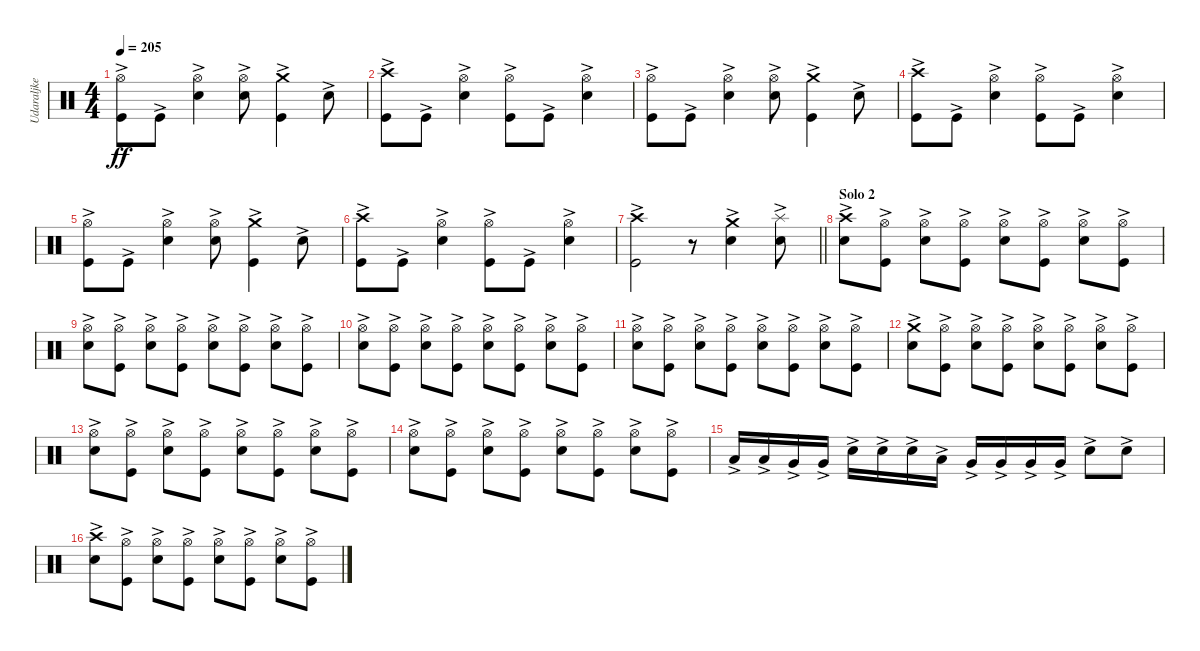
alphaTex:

\track ("Udaraljke" "Udaraljke") {instrument percussion}
\staff {score}
\articulation defaults
\ts (4 4)
\tempo 205
\clef neutral
\ks c
("Kick (hit)"{ac} "Hi-Hat (open)").8{dy ff} "Kick (hit)"{ac}.8 ("Snare (hit) 2"{ac} "Hi-Hat (open)").4 ("Snare (hit) 2"{ac} "Hi-Hat (open)").8 ("Kick (hit)"{ac} "Crash medium (hit)").4 "Snare (hit) 2"{ac}.8 |
("Kick (hit)"{ac} "Crash high (hit)").8 "Kick (hit)"{ac}.8 ("Snare (hit) 2"{ac} "Hi-Hat (open)").4 ("Kick (hit)"{ac} "Hi-Hat (open)").8 "Kick (hit)"{ac}.8 ("Snare (hit) 2"{ac} "Hi-Hat (open)").4 |
("Kick (hit)"{ac} "Hi-Hat (open)").8 "Kick (hit)"{ac}.8 ("Snare (hit) 2"{ac} "Hi-Hat (open)").4 ("Snare (hit) 2"{ac} "Hi-Hat (open)").8 ("Kick (hit)"{ac} "Crash medium (hit)").4 "Snare (hit) 2"{ac}.8 |
("Kick (hit)"{ac} "Crash high (hit)").8 "Kick (hit)"{ac}.8 ("Snare (hit) 2"{ac} "Hi-Hat (open)").4 ("Kick (hit)"{ac} "Hi-Hat (open)").8 "Kick (hit)"{ac}.8 ("Snare (hit) 2"{ac} "Hi-Hat (open)").4 |
("Kick (hit)"{ac} "Hi-Hat (open)").8 "Kick (hit)"{ac}.8 ("Snare (hit) 2"{ac} "Hi-Hat (open)").4 ("Snare (hit) 2"{ac} "Hi-Hat (open)").8 ("Kick (hit)"{ac} "Crash medium (hit)").4 "Snare (hit) 2"{ac}.8 |
("Kick (hit)"{ac} "Crash high (hit)").8 "Kick (hit)"{ac}.8 ("Snare (hit) 2"{ac} "Hi-Hat (open)").4 ("Kick (hit)"{ac} "Hi-Hat (open)").8 "Kick (hit)"{ac}.8 ("Snare (hit) 2"{ac} "Hi-Hat (open)").4 |
\barLineRight lightlight
("Kick (hit)"{ac} "Crash high (hit)").2 r.8 ("Snare (hit) 2"{ac} "Crash medium (hit)").4 ("Snare (hit) 2"{ac} "Splash (hit)").8 |
\section ("" "Solo 2")
("Snare (hit) 2"{ac} "Crash high (hit)").8 ("Kick (hit)"{ac} "Hi-Hat (open)").8 ("Snare (hit) 2"{ac} "Hi-Hat (open)").8 ("Kick (hit)"{ac} "Hi-Hat (open)").8 ("Snare (hit) 2"{ac} "Hi-Hat (open)").8 ("Kick (hit)"{ac} "Hi-Hat (open)").8 ("Snare (hit) 2"{ac} "Hi-Hat (open)").8 ("Kick (hit)"{ac} "Hi-Hat (open)").8 |
("Snare (hit) 2"{ac} "Hi-Hat (open)").8 ("Kick (hit)"{ac} "Hi-Hat (open)").8 ("Snare (hit) 2"{ac} "Hi-Hat (open)").8 ("Kick (hit)"{ac} "Hi-Hat (open)").8 ("Snare (hit) 2"{ac} "Hi-Hat (open)").8 ("Kick (hit)"{ac} "Hi-Hat (open)").8 ("Snare (hit) 2"{ac} "Hi-Hat (open)").8 ("Kick (hit)"{ac} "Hi-Hat (open)").8 |
("Snare (hit) 2"{ac} "Hi-Hat (open)").8 ("Kick (hit)"{ac} "Hi-Hat (open)").8 ("Snare (hit) 2"{ac} "Hi-Hat (open)").8 ("Kick (hit)"{ac} "Hi-Hat (open)").8 ("Snare (hit) 2"{ac} "Hi-Hat (open)").8 ("Kick (hit)"{ac} "Hi-Hat (open)").8 ("Snare (hit) 2"{ac} "Hi-Hat (open)").8 ("Kick (hit)"{ac} "Hi-Hat (open)").8 |
("Snare (hit) 2"{ac} "Hi-Hat (open)").8 ("Kick (hit)"{ac} "Hi-Hat (open)").8 ("Snare (hit) 2"{ac} "Hi-Hat (open)").8 ("Kick (hit)"{ac} "Hi-Hat (open)").8 ("Snare (hit) 2"{ac} "Hi-Hat (open)").8 ("Kick (hit)"{ac} "Hi-Hat (open)").8 ("Snare (hit) 2"{ac} "Hi-Hat (open)").8 ("Kick (hit)"{ac} "Hi-Hat (open)").8 |
("Snare (hit) 2"{ac} "Crash medium (hit)").8 ("Kick (hit)"{ac} "Hi-Hat (open)").8 ("Snare (hit) 2"{ac} "Hi-Hat (open)").8 ("Kick (hit)"{ac} "Hi-Hat (open)").8 ("Snare (hit) 2"{ac} "Hi-Hat (open)").8 ("Kick (hit)"{ac} "Hi-Hat (open)").8 ("Snare (hit) 2"{ac} "Hi-Hat (open)").8 ("Kick (hit)"{ac} "Hi-Hat (open)").8 |
("Snare (hit) 2"{ac} "Hi-Hat (open)").8 ("Kick (hit)"{ac} "Hi-Hat (open)").8 ("Snare (hit) 2"{ac} "Hi-Hat (open)").8 ("Kick (hit)"{ac} "Hi-Hat (open)").8 ("Snare (hit) 2"{ac} "Hi-Hat (open)").8 ("Kick (hit)"{ac} "Hi-Hat (open)").8 ("Snare (hit) 2"{ac} "Hi-Hat (open)").8 ("Kick (hit)"{ac} "Hi-Hat (open)").8 |
("Snare (hit) 2"{ac} "Hi-Hat (open)").8 ("Kick (hit)"{ac} "Hi-Hat (open)").8 ("Snare (hit) 2"{ac} "Hi-Hat (open)").8 ("Kick (hit)"{ac} "Hi-Hat (open)").8 ("Snare (hit) 2"{ac} "Hi-Hat (open)").8 ("Kick (hit)"{ac} "Hi-Hat (open)").8 ("Snare (hit) 2"{ac} "Hi-Hat (open)").8 ("Kick (hit)"{ac} "Hi-Hat (open)").8 |
"Low Tom (hit)"{ac}.16 "Low Tom (hit)"{ac}.16 "Very Low Tom (hit)"{ac}.16 "Very Low Tom (hit)"{ac}.16 "Snare (hit) 2"{ac}.16 "Snare (hit) 2"{ac}.16 "Snare (hit) 2"{ac}.16 "Low Tom (hit)"{ac}.16 "Very Low Tom (hit)"{ac}.16 "Very Low Tom (hit)"{ac}.16 "Very Low Tom (hit)"{ac}.16 "Very Low Tom (hit)"{ac}.16 "Snare (hit) 2"{ac}.8 "Snare (hit) 2"{ac}.8 |
("Snare (hit) 2"{ac} "Crash high (hit)").8 ("Kick (hit)"{ac} "Hi-Hat (open)").8 ("Snare (hit) 2"{ac} "Hi-Hat (open)").8 ("Kick (hit)"{ac} "Hi-Hat (open)").8 ("Snare (hit) 2"{ac} "Hi-Hat (open)").8 ("Kick (hit)"{ac} "Hi-Hat (open)").8 ("Snare (hit) 2"{ac} "Hi-Hat (open)").8 ("Kick (hit)"{ac} "Hi-Hat (open)").8
